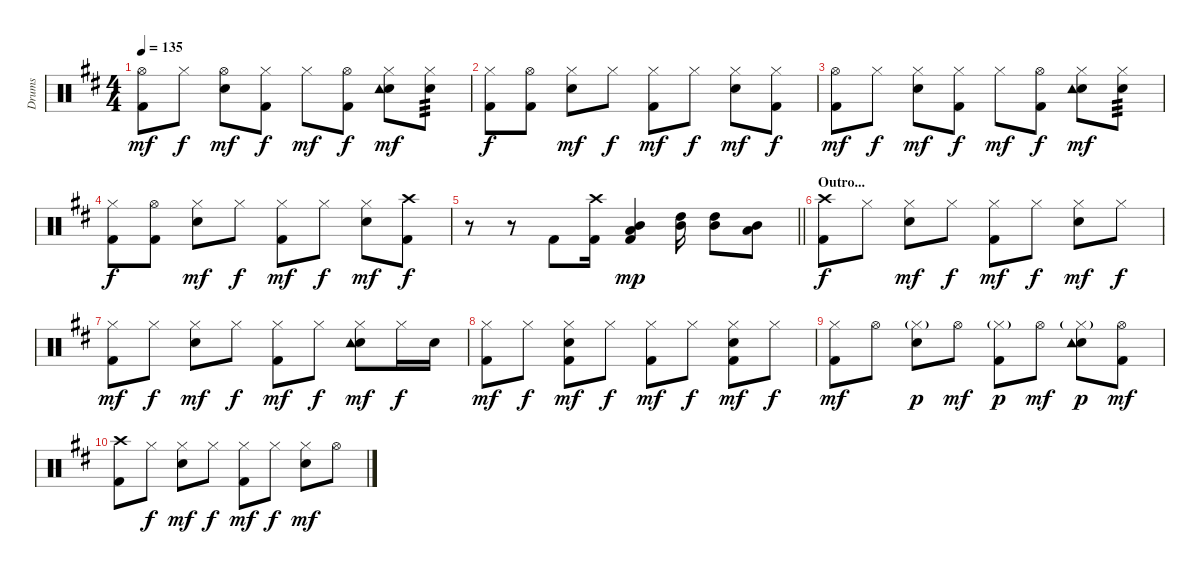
\track ("Drums" "Drums") {instrument percussion}
\staff {score}
\articulation defaults
\ts (4 4)
\tempo 135
\clef neutral
\ks d
("Hi-Hat (open)" "Kick (hit) 2").8{dy mf} "Hi-Hat (closed)".8{dy f} ("Hi-Hat (open)" "Electric Snare (hit)").8{dy mf} ("Hi-Hat (closed)" "Kick (hit) 2").8{dy f} "Hi-Hat (closed)".8{dy mf} ("Hi-Hat (open)" "Kick (hit) 2").8{dy f} ("Hi-Hat (closed)" "Electric Snare (hit)" "Tambourine (hit)").8{dy mf} ("Hi-Hat (closed)" "Electric Snare (hit)").8{tp 3} |
("Hi-Hat (closed)" "Kick (hit) 2").8{dy f} ("Hi-Hat (open)" "Kick (hit) 2").8 ("Hi-Hat (closed)" "Electric Snare (hit)").8{dy mf} "Hi-Hat (closed)".8{dy f} ("Hi-Hat (closed)" "Kick (hit) 2").8{dy mf} "Hi-Hat (closed)".8{dy f} ("Hi-Hat (closed)" "Electric Snare (hit)").8{dy mf} ("Hi-Hat (closed)" "Kick (hit) 2").8{dy f} |
("Hi-Hat (open)" "Kick (hit) 2").8{dy mf} "Hi-Hat (closed)".8{dy f} ("Hi-Hat (closed)" "Electric Snare (hit)").8{dy mf} ("Hi-Hat (closed)" "Kick (hit) 2").8{dy f} "Hi-Hat (closed)".8{dy mf} ("Hi-Hat (open)" "Kick (hit) 2").8{dy f} ("Hi-Hat (closed)" "Electric Snare (hit)" "Tambourine (hit)").8{dy mf} ("Hi-Hat (closed)" "Electric Snare (hit)").8{tp 3} |
("Hi-Hat (closed)" "Kick (hit) 2").8{dy f} ("Hi-Hat (open)" "Kick (hit) 2").8 ("Hi-Hat (closed)" "Electric Snare (hit)").8{dy mf} "Hi-Hat (closed)".8{dy f} ("Hi-Hat (closed)" "Kick (hit) 2").8{dy mf} "Hi-Hat (closed)".8{dy f} ("Hi-Hat (closed)" "Electric Snare (hit)").8{dy mf} ("Crash high (hit)" "Kick (hit) 2").8{dy f} |
\barLineRight lightlight
r.8 r.8 "Kick (hit) 2".8 ("Crash high (hit)" "Kick (hit) 2").16 ("Mid Tom (hit)" "Low Tom (hit)" "Kick (hit) 2").4{dy mp} ("High Tom (hit)" "Mid Tom (hit)").16 ("High Tom (hit)" "Mid Tom (hit)").8 ("Mid Tom (hit)" "Low Tom (hit)").8 |
\section ("" "Outro...")
("Crash high (hit)" "Kick (hit) 2").8{dy f} "Hi-Hat (closed)".8 ("Hi-Hat (closed)" "Electric Snare (hit)").8{dy mf} "Hi-Hat (closed)".8{dy f} ("Hi-Hat (closed)" "Kick (hit) 2").8{dy mf} "Hi-Hat (closed)".8{dy f} ("Hi-Hat (closed)" "Electric Snare (hit)").8{dy mf} "Hi-Hat (closed)".8{dy f} |
("Hi-Hat (closed)" "Kick (hit) 2").8{dy mf} "Hi-Hat (closed)".8{dy f} ("Hi-Hat (closed)" "Electric Snare (hit)").8{dy mf} "Hi-Hat (closed)".8{dy f} ("Hi-Hat (closed)" "Kick (hit) 2").8{dy mf} "Hi-Hat (closed)".8{dy f} ("Hi-Hat (closed)" "Electric Snare (hit)" "Tambourine (hit)").8{dy mf} "Hi-Hat (closed)".16{dy f} "Electric Snare (hit)".16 |
("Hi-Hat (closed)" "Kick (hit) 2").8{dy mf} "Hi-Hat (closed)".8{dy f} ("Hi-Hat (closed)" "Electric Snare (hit)" "Kick (hit) 2").8{dy mf} "Hi-Hat (closed)".8{dy f} ("Hi-Hat (closed)" "Kick (hit) 2").8{dy mf} "Hi-Hat (closed)".8{dy f} ("Hi-Hat (closed)" "Electric Snare (hit)" "Kick (hit) 2").8{dy mf} "Hi-Hat (closed)".8{dy f} |
("Hi-Hat (closed)" "Kick (hit) 2").8{dy mf} "Hi-Hat (open)".8 ("Hi-Hat (closed)"{g} "Electric Snare (hit)").8{dy p} "Hi-Hat (open)".8{dy mf} ("Hi-Hat (closed)"{g} "Kick (hit) 2").8{dy p} "Hi-Hat (open)".8{dy mf} ("Hi-Hat (closed)"{g} "Electric Snare (hit)" "Tambourine (hit)").8{dy p} ("Hi-Hat (open)" "Kick (hit) 2").8{dy mf} |
("Crash high (hit)" "Kick (hit) 2").8 "Hi-Hat (closed)".8{dy f} ("Hi-Hat (closed)" "Electric Snare (hit)").8{dy mf} "Hi-Hat (closed)".8{dy f} ("Hi-Hat (closed)" "Kick (hit) 2").8{dy mf} "Hi-Hat (closed)".8{dy f} ("Hi-Hat (closed)" "Electric Snare (hit)").8{dy mf} "Hi-Hat (open)".8
